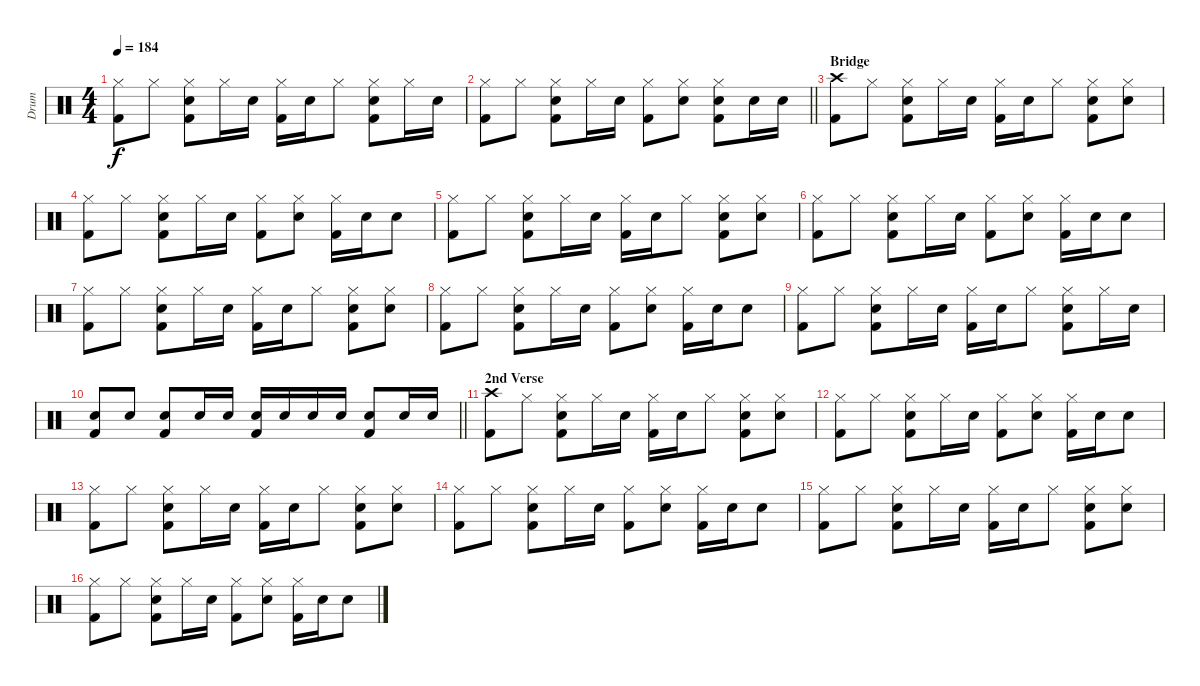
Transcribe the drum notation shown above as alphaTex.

\track ("Drum" "Drum") {instrument percussion}
\staff {score}
\articulation defaults
\ts (4 4)
\tempo 184
\clef neutral
\ks c
("Hi-Hat (closed)" "Kick (hit) 2").8{dy f} "Hi-Hat (closed)".8 ("Hi-Hat (closed)" "Electric Snare (hit)" "Kick (hit) 2").8 "Hi-Hat (closed)".16 "Electric Snare (hit)".16 ("Hi-Hat (closed)" "Kick (hit) 2").16 "Electric Snare (hit)".16 "Hi-Hat (closed)".8 ("Hi-Hat (closed)" "Electric Snare (hit)" "Kick (hit) 2").8 "Hi-Hat (closed)".16 "Electric Snare (hit)".16 |
\barLineRight lightlight
("Hi-Hat (closed)" "Kick (hit) 2").8 "Hi-Hat (closed)".8 ("Hi-Hat (closed)" "Electric Snare (hit)" "Kick (hit) 2").8 "Hi-Hat (closed)".16 "Electric Snare (hit)".16 ("Hi-Hat (closed)" "Kick (hit) 2").8 ("Hi-Hat (closed)" "Electric Snare (hit)").8 ("Hi-Hat (closed)" "Electric Snare (hit)" "Kick (hit) 2").8 "Electric Snare (hit)".16 "Electric Snare (hit)".16 |
\section ("" "Bridge")
("Crash high (hit)" "Kick (hit) 2").8 "Hi-Hat (closed)".8 ("Hi-Hat (closed)" "Electric Snare (hit)" "Kick (hit) 2").8 "Hi-Hat (closed)".16 "Electric Snare (hit)".16 ("Hi-Hat (closed)" "Kick (hit) 2").16 "Electric Snare (hit)".16 "Hi-Hat (closed)".8 ("Hi-Hat (closed)" "Electric Snare (hit)" "Kick (hit) 2").8 ("Hi-Hat (closed)" "Electric Snare (hit)").8 |
("Hi-Hat (closed)" "Kick (hit) 2").8 "Hi-Hat (closed)".8 ("Hi-Hat (closed)" "Electric Snare (hit)" "Kick (hit) 2").8 "Hi-Hat (closed)".16 "Electric Snare (hit)".16 ("Hi-Hat (closed)" "Kick (hit) 2").8 ("Hi-Hat (closed)" "Electric Snare (hit)").8 ("Hi-Hat (closed)" "Kick (hit) 2").16 "Electric Snare (hit)".16 "Electric Snare (hit)".8 |
("Hi-Hat (closed)" "Kick (hit) 2").8 "Hi-Hat (closed)".8 ("Hi-Hat (closed)" "Electric Snare (hit)" "Kick (hit) 2").8 "Hi-Hat (closed)".16 "Electric Snare (hit)".16 ("Hi-Hat (closed)" "Kick (hit) 2").16 "Electric Snare (hit)".16 "Hi-Hat (closed)".8 ("Hi-Hat (closed)" "Electric Snare (hit)" "Kick (hit) 2").8 ("Hi-Hat (closed)" "Electric Snare (hit)").8 |
("Hi-Hat (closed)" "Kick (hit) 2").8 "Hi-Hat (closed)".8 ("Hi-Hat (closed)" "Electric Snare (hit)" "Kick (hit) 2").8 "Hi-Hat (closed)".16 "Electric Snare (hit)".16 ("Hi-Hat (closed)" "Kick (hit) 2").8 ("Hi-Hat (closed)" "Electric Snare (hit)").8 ("Hi-Hat (closed)" "Kick (hit) 2").16 "Electric Snare (hit)".16 "Electric Snare (hit)".8 |
("Hi-Hat (closed)" "Kick (hit) 2").8 "Hi-Hat (closed)".8 ("Hi-Hat (closed)" "Electric Snare (hit)" "Kick (hit) 2").8 "Hi-Hat (closed)".16 "Electric Snare (hit)".16 ("Hi-Hat (closed)" "Kick (hit) 2").16 "Electric Snare (hit)".16 "Hi-Hat (closed)".8 ("Hi-Hat (closed)" "Electric Snare (hit)" "Kick (hit) 2").8 ("Hi-Hat (closed)" "Electric Snare (hit)").8 |
("Hi-Hat (closed)" "Kick (hit) 2").8 "Hi-Hat (closed)".8 ("Hi-Hat (closed)" "Electric Snare (hit)" "Kick (hit) 2").8 "Hi-Hat (closed)".16 "Electric Snare (hit)".16 ("Hi-Hat (closed)" "Kick (hit) 2").8 ("Hi-Hat (closed)" "Electric Snare (hit)").8 ("Hi-Hat (closed)" "Kick (hit) 2").16 "Electric Snare (hit)".16 "Electric Snare (hit)".8 |
("Hi-Hat (closed)" "Kick (hit) 2").8 "Hi-Hat (closed)".8 ("Hi-Hat (closed)" "Electric Snare (hit)" "Kick (hit) 2").8 "Hi-Hat (closed)".16 "Electric Snare (hit)".16 ("Hi-Hat (closed)" "Kick (hit) 2").16 "Electric Snare (hit)".16 "Hi-Hat (closed)".8 ("Hi-Hat (closed)" "Electric Snare (hit)" "Kick (hit) 2").8 "Hi-Hat (closed)".16 "Electric Snare (hit)".16 |
\barLineRight lightlight
("Electric Snare (hit)" "Kick (hit) 2").8 "Electric Snare (hit)".8 ("Electric Snare (hit)" "Kick (hit) 2").8 "Electric Snare (hit)".16 "Electric Snare (hit)".16 ("Electric Snare (hit)" "Kick (hit) 2").16 "Electric Snare (hit)".16 "Electric Snare (hit)".16 "Electric Snare (hit)".16 ("Electric Snare (hit)" "Kick (hit) 2").8 "Electric Snare (hit)".16 "Electric Snare (hit)".16 |
\section ("" "2nd Verse")
("Crash high (hit)" "Kick (hit) 2").8 "Hi-Hat (closed)".8 ("Hi-Hat (closed)" "Electric Snare (hit)" "Kick (hit) 2").8 "Hi-Hat (closed)".16 "Electric Snare (hit)".16 ("Hi-Hat (closed)" "Kick (hit) 2").16 "Electric Snare (hit)".16 "Hi-Hat (closed)".8 ("Hi-Hat (closed)" "Electric Snare (hit)" "Kick (hit) 2").8 ("Hi-Hat (closed)" "Electric Snare (hit)").8 |
("Hi-Hat (closed)" "Kick (hit) 2").8 "Hi-Hat (closed)".8 ("Hi-Hat (closed)" "Electric Snare (hit)" "Kick (hit) 2").8 "Hi-Hat (closed)".16 "Electric Snare (hit)".16 ("Hi-Hat (closed)" "Kick (hit) 2").8 ("Hi-Hat (closed)" "Electric Snare (hit)").8 ("Hi-Hat (closed)" "Kick (hit) 2").16 "Electric Snare (hit)".16 "Electric Snare (hit)".8 |
("Hi-Hat (closed)" "Kick (hit) 2").8 "Hi-Hat (closed)".8 ("Hi-Hat (closed)" "Electric Snare (hit)" "Kick (hit) 2").8 "Hi-Hat (closed)".16 "Electric Snare (hit)".16 ("Hi-Hat (closed)" "Kick (hit) 2").16 "Electric Snare (hit)".16 "Hi-Hat (closed)".8 ("Hi-Hat (closed)" "Electric Snare (hit)" "Kick (hit) 2").8 ("Hi-Hat (closed)" "Electric Snare (hit)").8 |
("Hi-Hat (closed)" "Kick (hit) 2").8 "Hi-Hat (closed)".8 ("Hi-Hat (closed)" "Electric Snare (hit)" "Kick (hit) 2").8 "Hi-Hat (closed)".16 "Electric Snare (hit)".16 ("Hi-Hat (closed)" "Kick (hit) 2").8 ("Hi-Hat (closed)" "Electric Snare (hit)").8 ("Hi-Hat (closed)" "Kick (hit) 2").16 "Electric Snare (hit)".16 "Electric Snare (hit)".8 |
("Hi-Hat (closed)" "Kick (hit) 2").8 "Hi-Hat (closed)".8 ("Hi-Hat (closed)" "Electric Snare (hit)" "Kick (hit) 2").8 "Hi-Hat (closed)".16 "Electric Snare (hit)".16 ("Hi-Hat (closed)" "Kick (hit) 2").16 "Electric Snare (hit)".16 "Hi-Hat (closed)".8 ("Hi-Hat (closed)" "Electric Snare (hit)" "Kick (hit) 2").8 ("Hi-Hat (closed)" "Electric Snare (hit)").8 |
("Hi-Hat (closed)" "Kick (hit) 2").8 "Hi-Hat (closed)".8 ("Hi-Hat (closed)" "Electric Snare (hit)" "Kick (hit) 2").8 "Hi-Hat (closed)".16 "Electric Snare (hit)".16 ("Hi-Hat (closed)" "Kick (hit) 2").8 ("Hi-Hat (closed)" "Electric Snare (hit)").8 ("Hi-Hat (closed)" "Kick (hit) 2").16 "Electric Snare (hit)".16 "Electric Snare (hit)".8
